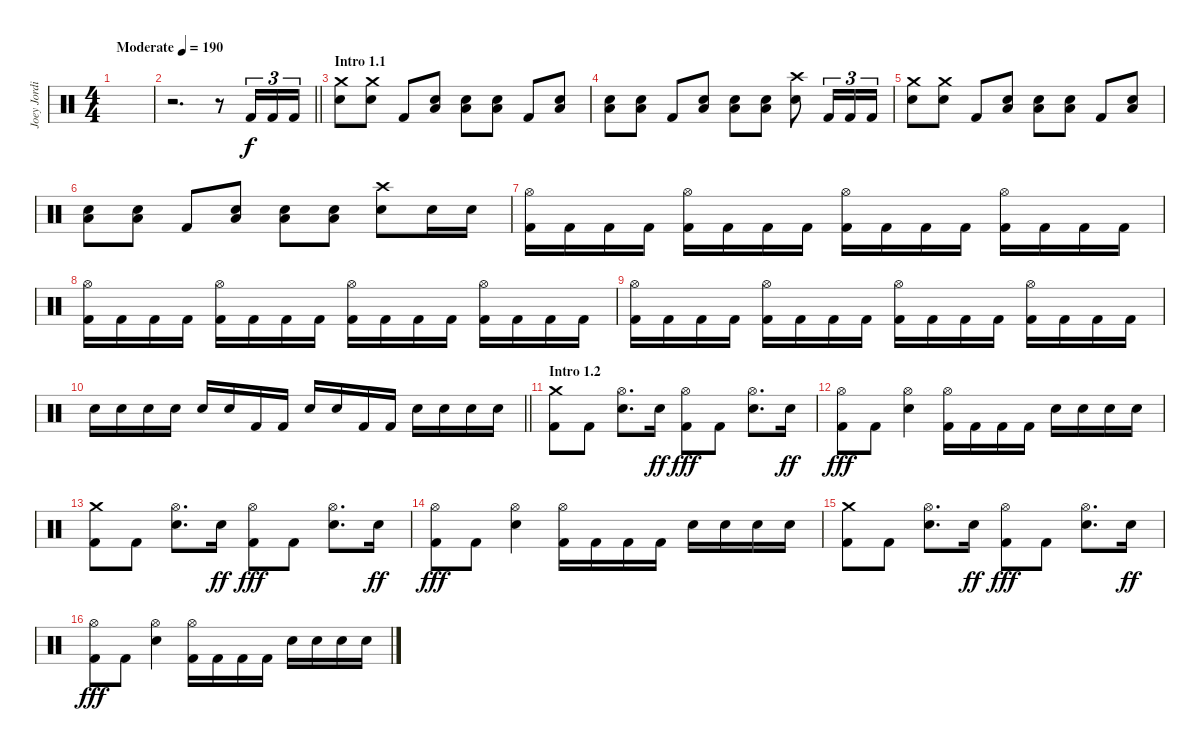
\track ("Joey Jordison" "Joey Jordi") {instrument percussion}
\staff {score}
\articulation defaults
\ts (4 4)
\tempo (190 "Moderate")
\clef neutral
\ks c
|
\barLineRight lightlight
r.2{d} r.8 "Kick (hit) 2".16{tu (3 2)} "Kick (hit) 2".16{tu (3 2)} "Kick (hit) 2".16{tu (3 2)} |
\section ("" "Intro 1.1")
("Crash medium (hit)" "Electric Snare (hit)").8 ("Crash medium (hit)" "Electric Snare (hit)").8 "Kick (hit) 2".8 ("Electric Snare (hit)" "Low Floor Tom (hit)").8 ("Electric Snare (hit)" "Low Floor Tom (hit)").8 ("Electric Snare (hit)" "Low Floor Tom (hit)").8 "Kick (hit) 2".8 ("Electric Snare (hit)" "Low Floor Tom (hit)").8 |
("Electric Snare (hit)" "Low Floor Tom (hit)").8 ("Electric Snare (hit)" "Low Floor Tom (hit)").8 "Kick (hit) 2".8 ("Electric Snare (hit)" "Low Floor Tom (hit)").8 ("Electric Snare (hit)" "Low Floor Tom (hit)").8 ("Electric Snare (hit)" "Low Floor Tom (hit)").8 ("Crash high (hit)" "Electric Snare (hit)").8 "Kick (hit) 2".16{tu (3 2)} "Kick (hit) 2".16{tu (3 2)} "Kick (hit) 2".16{tu (3 2)} |
("Crash medium (hit)" "Electric Snare (hit)").8 ("Crash medium (hit)" "Electric Snare (hit)").8 "Kick (hit) 2".8 ("Electric Snare (hit)" "Low Floor Tom (hit)").8 ("Electric Snare (hit)" "Low Floor Tom (hit)").8 ("Electric Snare (hit)" "Low Floor Tom (hit)").8 "Kick (hit) 2".8 ("Electric Snare (hit)" "Low Floor Tom (hit)").8 |
("Electric Snare (hit)" "Low Floor Tom (hit)").8 ("Electric Snare (hit)" "Low Floor Tom (hit)").8 "Kick (hit) 2".8 ("Electric Snare (hit)" "Low Floor Tom (hit)").8 ("Electric Snare (hit)" "Low Floor Tom (hit)").8 ("Electric Snare (hit)" "Low Floor Tom (hit)").8 ("Crash high (hit)" "Electric Snare (hit)").8 "Electric Snare (hit)".16 "Electric Snare (hit)".16 |
("Hi-Hat (open)" "Kick (hit) 2").16 "Kick (hit) 2".16 "Kick (hit) 2".16 "Kick (hit) 2".16 ("Hi-Hat (open)" "Kick (hit) 2").16 "Kick (hit) 2".16 "Kick (hit) 2".16 "Kick (hit) 2".16 ("Hi-Hat (open)" "Kick (hit) 2").16 "Kick (hit) 2".16 "Kick (hit) 2".16 "Kick (hit) 2".16 ("Hi-Hat (open)" "Kick (hit) 2").16 "Kick (hit) 2".16 "Kick (hit) 2".16 "Kick (hit) 2".16 |
("Hi-Hat (open)" "Kick (hit) 2").16 "Kick (hit) 2".16 "Kick (hit) 2".16 "Kick (hit) 2".16 ("Hi-Hat (open)" "Kick (hit) 2").16 "Kick (hit) 2".16 "Kick (hit) 2".16 "Kick (hit) 2".16 ("Hi-Hat (open)" "Kick (hit) 2").16 "Kick (hit) 2".16 "Kick (hit) 2".16 "Kick (hit) 2".16 ("Hi-Hat (open)" "Kick (hit) 2").16 "Kick (hit) 2".16 "Kick (hit) 2".16 "Kick (hit) 2".16 |
("Hi-Hat (open)" "Kick (hit) 2").16 "Kick (hit) 2".16 "Kick (hit) 2".16 "Kick (hit) 2".16 ("Hi-Hat (open)" "Kick (hit) 2").16 "Kick (hit) 2".16 "Kick (hit) 2".16 "Kick (hit) 2".16 ("Hi-Hat (open)" "Kick (hit) 2").16 "Kick (hit) 2".16 "Kick (hit) 2".16 "Kick (hit) 2".16 ("Hi-Hat (open)" "Kick (hit) 2").16 "Kick (hit) 2".16 "Kick (hit) 2".16 "Kick (hit) 2".16 |
\barLineRight lightlight "Electric Snare (hit)".16 "Electric Snare (hit)".16 "Electric Snare (hit)".16 "Electric Snare (hit)".16 "Electric Snare (hit)".16 "Electric Snare (hit)".16 "Kick (hit) 2".16 "Kick (hit) 2".16 "Electric Snare (hit)".16 "Electric Snare (hit)".16 "Kick (hit) 2".16 "Kick (hit) 2".16 "Electric Snare (hit)".16 "Electric Snare (hit)".16 "Electric Snare (hit)".16 "Electric Snare (hit)".16
|
\section ("" "Intro 1.2")
("Crash medium (hit)" "Kick (hit) 2").8 "Kick (hit) 2".8 ("Hi-Hat (open)" "Electric Snare (hit)").8{d} "Electric Snare (hit)".16{dy ff} ("Hi-Hat (open)" "Kick (hit) 2").8{dy fff} "Kick (hit) 2".8 ("Hi-Hat (open)" "Electric Snare (hit)").8{d} "Electric Snare (hit)".16{dy ff} |
("Hi-Hat (open)" "Kick (hit) 2").8{dy fff} "Kick (hit) 2".8 ("Hi-Hat (open)" "Electric Snare (hit)").4 ("Hi-Hat (open)" "Kick (hit) 2").16 "Kick (hit) 2".16 "Kick (hit) 2".16 "Kick (hit) 2".16 "Electric Snare (hit)".16 "Electric Snare (hit)".16 "Electric Snare (hit)".16 "Electric Snare (hit)".16 |
("Crash medium (hit)" "Kick (hit) 2").8 "Kick (hit) 2".8 ("Hi-Hat (open)" "Electric Snare (hit)").8{d} "Electric Snare (hit)".16{dy ff} ("Hi-Hat (open)" "Kick (hit) 2").8{dy fff} "Kick (hit) 2".8 ("Hi-Hat (open)" "Electric Snare (hit)").8{d} "Electric Snare (hit)".16{dy ff} |
("Hi-Hat (open)" "Kick (hit) 2").8{dy fff} "Kick (hit) 2".8 ("Hi-Hat (open)" "Electric Snare (hit)").4 ("Hi-Hat (open)" "Kick (hit) 2").16 "Kick (hit) 2".16 "Kick (hit) 2".16 "Kick (hit) 2".16 "Electric Snare (hit)".16 "Electric Snare (hit)".16 "Electric Snare (hit)".16 "Electric Snare (hit)".16 |
("Crash medium (hit)" "Kick (hit) 2").8 "Kick (hit) 2".8 ("Hi-Hat (open)" "Electric Snare (hit)").8{d} "Electric Snare (hit)".16{dy ff} ("Hi-Hat (open)" "Kick (hit) 2").8{dy fff} "Kick (hit) 2".8 ("Hi-Hat (open)" "Electric Snare (hit)").8{d} "Electric Snare (hit)".16{dy ff} |
("Hi-Hat (open)" "Kick (hit) 2").8{dy fff} "Kick (hit) 2".8 ("Hi-Hat (open)" "Electric Snare (hit)").4 ("Hi-Hat (open)" "Kick (hit) 2").16 "Kick (hit) 2".16 "Kick (hit) 2".16 "Kick (hit) 2".16 "Electric Snare (hit)".16 "Electric Snare (hit)".16 "Electric Snare (hit)".16 "Electric Snare (hit)".16
